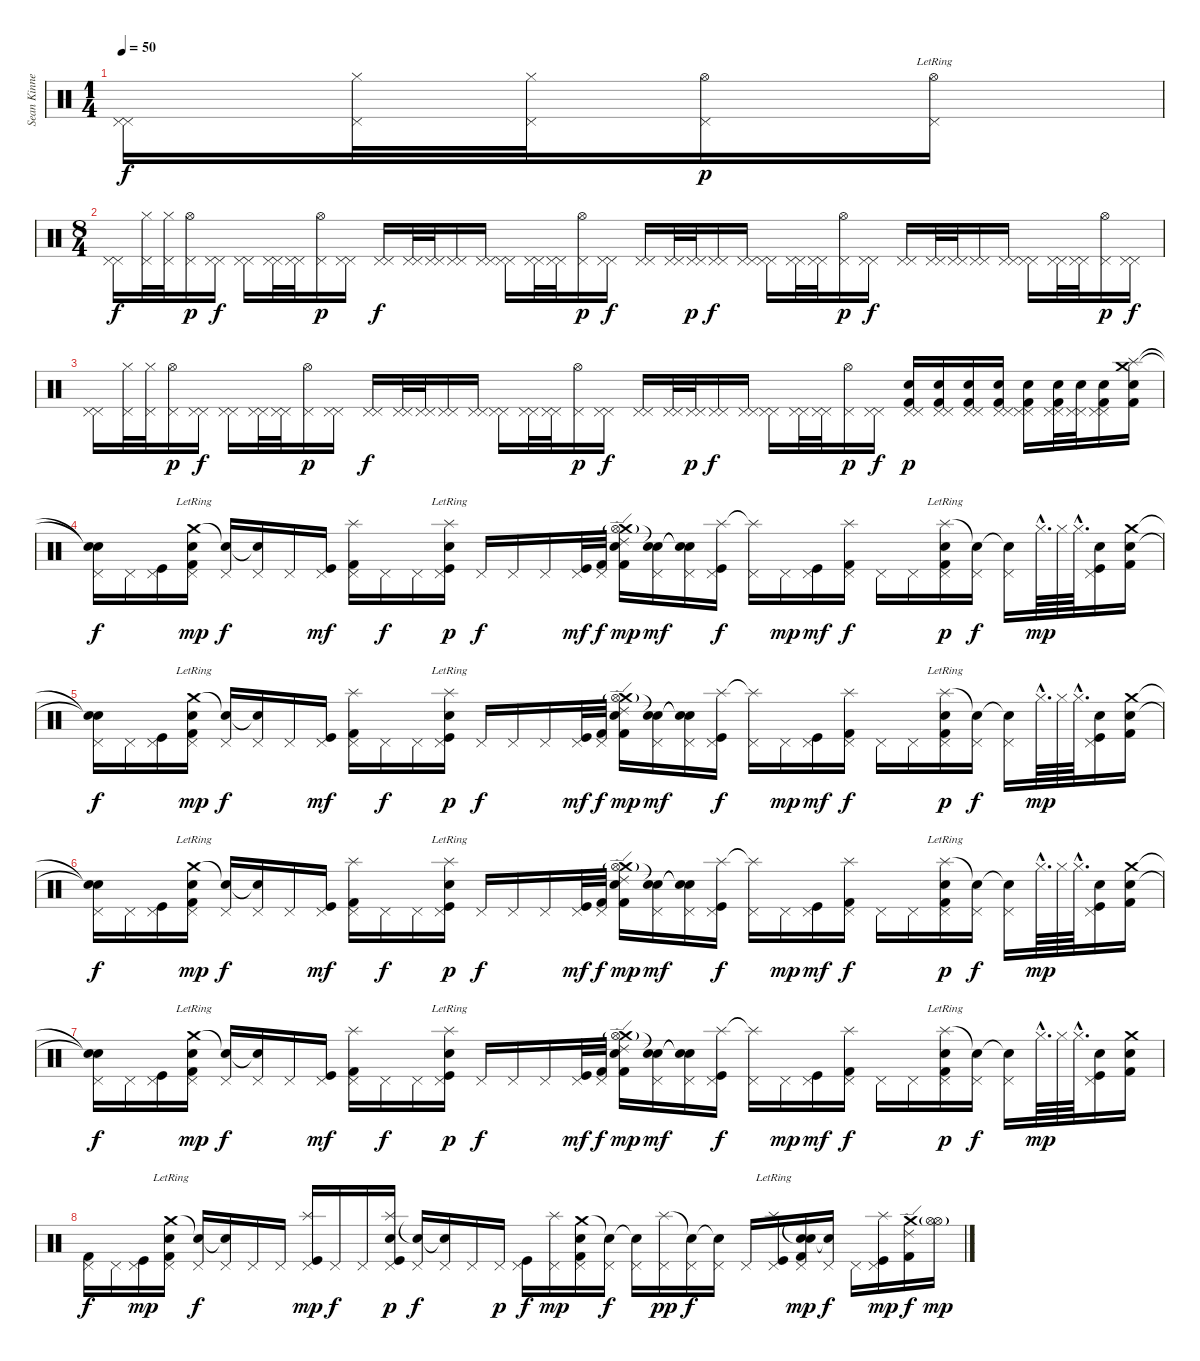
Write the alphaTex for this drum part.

\track ("Sean Kinney" "Sean Kinne") {instrument percussion}
\staff {score}
\articulation defaults
\ts (1 4)
\tempo 50
\clef neutral
\ks c
("Pedal Hi-Hat (hit)" "Pedal Hi-Hat (hit)").16{dy f} ("Hi-Hat (closed)" "Pedal Hi-Hat (hit)").32 ("Hi-Hat (closed)" "Pedal Hi-Hat (hit)").32 ("Pedal Hi-Hat (hit)" "Hi-Hat (open)").16{dy p} ("Pedal Hi-Hat (hit)" "Hi-Hat (open)"{lr}).16 |
\ts (8 4)
("Pedal Hi-Hat (hit)" "Pedal Hi-Hat (hit)").16{dy f} ("Hi-Hat (closed)" "Pedal Hi-Hat (hit)").32 ("Hi-Hat (closed)" "Pedal Hi-Hat (hit)").32 ("Pedal Hi-Hat (hit)" "Hi-Hat (open)").16{dy p} ("Pedal Hi-Hat (hit)" "Pedal Hi-Hat (hit)").16{dy f} ("Pedal Hi-Hat (hit)" "Pedal Hi-Hat (hit)").16 ("Pedal Hi-Hat (hit)" "Pedal Hi-Hat (hit)").32 ("Pedal Hi-Hat (hit)" "Pedal Hi-Hat (hit)").32 ("Pedal Hi-Hat (hit)" "Hi-Hat (open)").16{dy p} ("Pedal Hi-Hat (hit)" "Pedal Hi-Hat (hit)").16 ("Pedal Hi-Hat (hit)" "Pedal Hi-Hat (hit)").16{dy f} ("Pedal Hi-Hat (hit)" "Pedal Hi-Hat (hit)").32 ("Pedal Hi-Hat (hit)" "Pedal Hi-Hat (hit)").32 ("Pedal Hi-Hat (hit)" "Pedal Hi-Hat (hit)").16 ("Pedal Hi-Hat (hit)" "Pedal Hi-Hat (hit)").16 ("Pedal Hi-Hat (hit)" "Pedal Hi-Hat (hit)").16 ("Pedal Hi-Hat (hit)" "Pedal Hi-Hat (hit)").32 ("Pedal Hi-Hat (hit)" "Pedal Hi-Hat (hit)").32 ("Pedal Hi-Hat (hit)" "Hi-Hat (open)").16{dy p} ("Pedal Hi-Hat (hit)" "Pedal Hi-Hat (hit)").16{dy f} ("Pedal Hi-Hat (hit)" "Pedal Hi-Hat (hit)").16 ("Pedal Hi-Hat (hit)" "Pedal Hi-Hat (hit)").32 ("Pedal Hi-Hat (hit)" "Pedal Hi-Hat (hit)").32{dy p} ("Pedal Hi-Hat (hit)" "Pedal Hi-Hat (hit)").16{dy f} ("Pedal Hi-Hat (hit)" "Pedal Hi-Hat (hit)").16 ("Pedal Hi-Hat (hit)" "Pedal Hi-Hat (hit)").16 ("Pedal Hi-Hat (hit)" "Pedal Hi-Hat (hit)").32 ("Pedal Hi-Hat (hit)" "Pedal Hi-Hat (hit)").32 ("Pedal Hi-Hat (hit)" "Hi-Hat (open)").16{dy p} ("Pedal Hi-Hat (hit)" "Pedal Hi-Hat (hit)").16{dy f} ("Pedal Hi-Hat (hit)" "Pedal Hi-Hat (hit)").16 ("Pedal Hi-Hat (hit)" "Pedal Hi-Hat (hit)").32 ("Pedal Hi-Hat (hit)" "Pedal Hi-Hat (hit)").32 ("Pedal Hi-Hat (hit)" "Pedal Hi-Hat (hit)").16 ("Pedal Hi-Hat (hit)" "Pedal Hi-Hat (hit)").16 ("Pedal Hi-Hat (hit)" "Pedal Hi-Hat (hit)").16 ("Pedal Hi-Hat (hit)" "Pedal Hi-Hat (hit)").32 ("Pedal Hi-Hat (hit)" "Pedal Hi-Hat (hit)").32 ("Pedal Hi-Hat (hit)" "Hi-Hat (open)").16{dy p} ("Pedal Hi-Hat (hit)" "Pedal Hi-Hat (hit)").16{dy f} |
("Pedal Hi-Hat (hit)" "Pedal Hi-Hat (hit)").16 ("Hi-Hat (closed)" "Pedal Hi-Hat (hit)").32 ("Hi-Hat (closed)" "Pedal Hi-Hat (hit)").32 ("Pedal Hi-Hat (hit)" "Hi-Hat (open)").16{dy p} ("Pedal Hi-Hat (hit)" "Pedal Hi-Hat (hit)").16{dy f} ("Pedal Hi-Hat (hit)" "Pedal Hi-Hat (hit)").16 ("Pedal Hi-Hat (hit)" "Pedal Hi-Hat (hit)").32 ("Pedal Hi-Hat (hit)" "Pedal Hi-Hat (hit)").32 ("Pedal Hi-Hat (hit)" "Hi-Hat (open)").16{dy p} ("Pedal Hi-Hat (hit)" "Pedal Hi-Hat (hit)").16 ("Pedal Hi-Hat (hit)" "Pedal Hi-Hat (hit)").16{dy f} ("Pedal Hi-Hat (hit)" "Pedal Hi-Hat (hit)").32 ("Pedal Hi-Hat (hit)" "Pedal Hi-Hat (hit)").32 ("Pedal Hi-Hat (hit)" "Pedal Hi-Hat (hit)").16 ("Pedal Hi-Hat (hit)" "Pedal Hi-Hat (hit)").16 ("Pedal Hi-Hat (hit)" "Pedal Hi-Hat (hit)").16 ("Pedal Hi-Hat (hit)" "Pedal Hi-Hat (hit)").32 ("Pedal Hi-Hat (hit)" "Pedal Hi-Hat (hit)").32 ("Pedal Hi-Hat (hit)" "Hi-Hat (open)").16{dy p} ("Pedal Hi-Hat (hit)" "Pedal Hi-Hat (hit)").16{dy f} ("Pedal Hi-Hat (hit)" "Pedal Hi-Hat (hit)").16 ("Pedal Hi-Hat (hit)" "Pedal Hi-Hat (hit)").32 ("Pedal Hi-Hat (hit)" "Pedal Hi-Hat (hit)").32{dy p} ("Pedal Hi-Hat (hit)" "Pedal Hi-Hat (hit)").16{dy f} ("Pedal Hi-Hat (hit)" "Pedal Hi-Hat (hit)").16 ("Pedal Hi-Hat (hit)" "Pedal Hi-Hat (hit)").16 ("Pedal Hi-Hat (hit)" "Pedal Hi-Hat (hit)").32 ("Pedal Hi-Hat (hit)" "Pedal Hi-Hat (hit)").32 ("Pedal Hi-Hat (hit)" "Hi-Hat (open)").16{dy p} ("Pedal Hi-Hat (hit)" "Pedal Hi-Hat (hit)").16{dy f} ("Pedal Hi-Hat (hit)" "Pedal Hi-Hat (hit)" "Snare (hit) 2" "Kick (hit) 2").16{dy p} ("Pedal Hi-Hat (hit)" "Pedal Hi-Hat (hit)" "Snare (hit) 2" "Kick (hit) 2").16 ("Pedal Hi-Hat (hit)" "Pedal Hi-Hat (hit)" "Snare (hit) 2" "Kick (hit) 2").16 ("Pedal Hi-Hat (hit)" "Pedal Hi-Hat (hit)" "Snare (hit) 2" "Kick (hit) 2").16 ("Pedal Hi-Hat (hit)" "Pedal Hi-Hat (hit)" "Snare (hit) 2" "Kick (hit) 2").16 ("Pedal Hi-Hat (hit)" "Pedal Hi-Hat (hit)" "Snare (hit) 2" "Kick (hit) 2").32 ("Pedal Hi-Hat (hit)" "Pedal Hi-Hat (hit)" "Snare (hit) 2").32 ("Pedal Hi-Hat (hit)" "Pedal Hi-Hat (hit)" "Snare (hit) 2" "Kick (hit) 2").16 ("Splash (hit)" "Crash medium (hit)" "Snare (hit) 2" "Kick (hit) 2").16 |
("Snare (hit)"{t} "Snare (hit)"{t} "Pedal Hi-Hat (hit)").16{dy f} "Pedal Hi-Hat (hit)".16 ("Pedal Hi-Hat (hit)" "Kick (hit)").16 ("Crash medium (hit)"{lr} "Snare (hit) 2" "Pedal Hi-Hat (hit)" "Kick (hit) 2").16{dy mp} ("Snare (hit)"{t} "Pedal Hi-Hat (hit)").16{dy f} ("Snare (hit)"{t} "Pedal Hi-Hat (hit)").16 "Pedal Hi-Hat (hit)".16 ("Pedal Hi-Hat (hit)" "Kick (hit)").16{dy mf} ("Splash (hit)" "Pedal Hi-Hat (hit)" "Kick (hit) 2").16 "Pedal Hi-Hat (hit)".16{dy f} "Pedal Hi-Hat (hit)".16 ("Splash (hit)"{lr} "Snare (hit) 2" "Pedal Hi-Hat (hit)" "Kick (hit)").16{dy p} "Pedal Hi-Hat (hit)".16{dy f} "Pedal Hi-Hat (hit)".16 "Pedal Hi-Hat (hit)".16 ("Pedal Hi-Hat (hit)" "Kick (hit)").32{dy mf} ("Pedal Hi-Hat (hit)" "Kick (hit) 2").32{dy f} ("Crash medium (hit)" "Ride (edge) 2" "Snare (hit) 2" "Hi-Hat (open)"{g} "Kick (hit) 2").16{dy mp} ("Snare (hit)"{t} "Snare (hit)"{t} "Pedal Hi-Hat (hit)").16{dy mf} ("Snare (hit)"{t} "Snare (hit)"{t} "Pedal Hi-Hat (hit)").16 ("Splash (hit)" "Pedal Hi-Hat (hit)" "Kick (hit)").16{dy f} ("Splash (hit)"{t} "Pedal Hi-Hat (hit)").16 "Pedal Hi-Hat (hit)".16{dy mp} ("Pedal Hi-Hat (hit)" "Kick (hit)").16{dy mf} ("Splash (hit)" "Pedal Hi-Hat (hit)" "Kick (hit) 2").16{dy f} "Pedal Hi-Hat (hit)".16 "Pedal Hi-Hat (hit)".16 ("Splash (hit)"{lr} "Snare (hit) 2" "Pedal Hi-Hat (hit)" "Kick (hit) 2").16{dy p} ("Snare (hit)"{t} "Pedal Hi-Hat (hit)").16{dy f} ("Snare (hit)"{t} "Pedal Hi-Hat (hit)").16 "Hi-Hat (closed)"{hac}.64{d dy mp} "Hi-Hat (closed)".64 "Hi-Hat (closed)"{hac}.64{d} ("Snare (hit) 2" "Pedal Hi-Hat (hit)" "Kick (hit)").16 ("Crash medium (hit)" "Snare (hit) 2" "Kick (hit) 2").16 |
("Snare (hit)"{t} "Snare (hit)"{t} "Pedal Hi-Hat (hit)").16{dy f} "Pedal Hi-Hat (hit)".16 ("Pedal Hi-Hat (hit)" "Kick (hit)").16 ("Crash medium (hit)"{lr} "Snare (hit) 2" "Pedal Hi-Hat (hit)" "Kick (hit) 2").16{dy mp} ("Snare (hit)"{t} "Pedal Hi-Hat (hit)").16{dy f} ("Snare (hit)"{t} "Pedal Hi-Hat (hit)").16 "Pedal Hi-Hat (hit)".16 ("Pedal Hi-Hat (hit)" "Kick (hit)").16{dy mf} ("Splash (hit)" "Pedal Hi-Hat (hit)" "Kick (hit) 2").16 "Pedal Hi-Hat (hit)".16{dy f} "Pedal Hi-Hat (hit)".16 ("Splash (hit)"{lr} "Snare (hit) 2" "Pedal Hi-Hat (hit)" "Kick (hit)").16{dy p} "Pedal Hi-Hat (hit)".16{dy f} "Pedal Hi-Hat (hit)".16 "Pedal Hi-Hat (hit)".16 ("Pedal Hi-Hat (hit)" "Kick (hit)").32{dy mf} ("Pedal Hi-Hat (hit)" "Kick (hit) 2").32{dy f} ("Crash medium (hit)" "Ride (edge) 2" "Snare (hit) 2" "Hi-Hat (open)"{g} "Kick (hit) 2").16{dy mp} ("Snare (hit)"{t} "Snare (hit)"{t} "Pedal Hi-Hat (hit)").16{dy mf} ("Snare (hit)"{t} "Snare (hit)"{t} "Pedal Hi-Hat (hit)").16 ("Splash (hit)" "Pedal Hi-Hat (hit)" "Kick (hit)").16{dy f} ("Splash (hit)"{t} "Pedal Hi-Hat (hit)").16 "Pedal Hi-Hat (hit)".16{dy mp} ("Pedal Hi-Hat (hit)" "Kick (hit)").16{dy mf} ("Splash (hit)" "Pedal Hi-Hat (hit)" "Kick (hit) 2").16{dy f} "Pedal Hi-Hat (hit)".16 "Pedal Hi-Hat (hit)".16 ("Splash (hit)"{lr} "Snare (hit) 2" "Pedal Hi-Hat (hit)" "Kick (hit) 2").16{dy p} ("Snare (hit)"{t} "Pedal Hi-Hat (hit)").16{dy f} ("Snare (hit)"{t} "Pedal Hi-Hat (hit)").16 "Hi-Hat (closed)"{hac}.64{d dy mp} "Hi-Hat (closed)".64 "Hi-Hat (closed)"{hac}.64{d} ("Snare (hit) 2" "Pedal Hi-Hat (hit)" "Kick (hit)").16 ("Crash medium (hit)" "Snare (hit) 2" "Kick (hit) 2").16 |
("Snare (hit)"{t} "Snare (hit)"{t} "Pedal Hi-Hat (hit)").16{dy f} "Pedal Hi-Hat (hit)".16 ("Pedal Hi-Hat (hit)" "Kick (hit)").16 ("Crash medium (hit)"{lr} "Snare (hit) 2" "Pedal Hi-Hat (hit)" "Kick (hit) 2").16{dy mp} ("Snare (hit)"{t} "Pedal Hi-Hat (hit)").16{dy f} ("Snare (hit)"{t} "Pedal Hi-Hat (hit)").16 "Pedal Hi-Hat (hit)".16 ("Pedal Hi-Hat (hit)" "Kick (hit)").16{dy mf} ("Splash (hit)" "Pedal Hi-Hat (hit)" "Kick (hit) 2").16 "Pedal Hi-Hat (hit)".16{dy f} "Pedal Hi-Hat (hit)".16 ("Splash (hit)"{lr} "Snare (hit) 2" "Pedal Hi-Hat (hit)" "Kick (hit)").16{dy p} "Pedal Hi-Hat (hit)".16{dy f} "Pedal Hi-Hat (hit)".16 "Pedal Hi-Hat (hit)".16 ("Pedal Hi-Hat (hit)" "Kick (hit)").32{dy mf} ("Pedal Hi-Hat (hit)" "Kick (hit) 2").32{dy f} ("Crash medium (hit)" "Ride (edge) 2" "Snare (hit) 2" "Hi-Hat (open)"{g} "Kick (hit) 2").16{dy mp} ("Snare (hit)"{t} "Snare (hit)"{t} "Pedal Hi-Hat (hit)").16{dy mf} ("Snare (hit)"{t} "Snare (hit)"{t} "Pedal Hi-Hat (hit)").16 ("Splash (hit)" "Pedal Hi-Hat (hit)" "Kick (hit)").16{dy f} ("Splash (hit)"{t} "Pedal Hi-Hat (hit)").16 "Pedal Hi-Hat (hit)".16{dy mp} ("Pedal Hi-Hat (hit)" "Kick (hit)").16{dy mf} ("Splash (hit)" "Pedal Hi-Hat (hit)" "Kick (hit) 2").16{dy f} "Pedal Hi-Hat (hit)".16 "Pedal Hi-Hat (hit)".16 ("Splash (hit)"{lr} "Snare (hit) 2" "Pedal Hi-Hat (hit)" "Kick (hit) 2").16{dy p} ("Snare (hit)"{t} "Pedal Hi-Hat (hit)").16{dy f} ("Snare (hit)"{t} "Pedal Hi-Hat (hit)").16 "Hi-Hat (closed)"{hac}.64{d dy mp} "Hi-Hat (closed)".64 "Hi-Hat (closed)"{hac}.64{d} ("Snare (hit) 2" "Pedal Hi-Hat (hit)" "Kick (hit)").16 ("Crash medium (hit)" "Snare (hit) 2" "Kick (hit) 2").16 |
("Snare (hit)"{t} "Snare (hit)"{t} "Pedal Hi-Hat (hit)").16{dy f} "Pedal Hi-Hat (hit)".16 ("Pedal Hi-Hat (hit)" "Kick (hit)").16 ("Crash medium (hit)"{lr} "Snare (hit) 2" "Pedal Hi-Hat (hit)" "Kick (hit) 2").16{dy mp} ("Snare (hit)"{t} "Pedal Hi-Hat (hit)").16{dy f} ("Snare (hit)"{t} "Pedal Hi-Hat (hit)").16 "Pedal Hi-Hat (hit)".16 ("Pedal Hi-Hat (hit)" "Kick (hit)").16{dy mf} ("Splash (hit)" "Pedal Hi-Hat (hit)" "Kick (hit) 2").16 "Pedal Hi-Hat (hit)".16{dy f} "Pedal Hi-Hat (hit)".16 ("Splash (hit)"{lr} "Snare (hit) 2" "Pedal Hi-Hat (hit)" "Kick (hit)").16{dy p} "Pedal Hi-Hat (hit)".16{dy f} "Pedal Hi-Hat (hit)".16 "Pedal Hi-Hat (hit)".16 ("Pedal Hi-Hat (hit)" "Kick (hit)").32{dy mf} ("Pedal Hi-Hat (hit)" "Kick (hit) 2").32{dy f} ("Crash medium (hit)" "Ride (edge) 2" "Snare (hit) 2" "Hi-Hat (open)"{g} "Kick (hit) 2").16{dy mp} ("Snare (hit)"{t} "Snare (hit)"{t} "Pedal Hi-Hat (hit)").16{dy mf} ("Snare (hit)"{t} "Snare (hit)"{t} "Pedal Hi-Hat (hit)").16 ("Splash (hit)" "Pedal Hi-Hat (hit)" "Kick (hit)").16{dy f} ("Splash (hit)"{t} "Pedal Hi-Hat (hit)").16 "Pedal Hi-Hat (hit)".16{dy mp} ("Pedal Hi-Hat (hit)" "Kick (hit)").16{dy mf} ("Splash (hit)" "Pedal Hi-Hat (hit)" "Kick (hit) 2").16{dy f} "Pedal Hi-Hat (hit)".16 "Pedal Hi-Hat (hit)".16 ("Splash (hit)"{lr} "Snare (hit) 2" "Pedal Hi-Hat (hit)" "Kick (hit) 2").16{dy p} ("Snare (hit)"{t} "Pedal Hi-Hat (hit)").16{dy f} ("Snare (hit)"{t} "Pedal Hi-Hat (hit)").16 "Hi-Hat (closed)"{hac}.64{d dy mp} "Hi-Hat (closed)".64 "Hi-Hat (closed)"{hac}.64{d} ("Snare (hit) 2" "Pedal Hi-Hat (hit)" "Kick (hit)").16 ("Crash medium (hit)" "Snare (hit) 2" "Kick (hit) 2").16 |
("Pedal Hi-Hat (hit)" "Kick (hit) 2").16{dy f} "Pedal Hi-Hat (hit)".16 ("Pedal Hi-Hat (hit)" "Kick (hit)").16{dy mp} ("Crash medium (hit)"{lr} "Snare (hit) 2" "Pedal Hi-Hat (hit)" "Kick (hit) 2").16 ("Snare (hit)"{t} "Pedal Hi-Hat (hit)").16{dy f} ("Snare (hit)"{t} "Pedal Hi-Hat (hit)").16 "Pedal Hi-Hat (hit)".16 "Pedal Hi-Hat (hit)".16 ("Splash (hit)" "Pedal Hi-Hat (hit)" "Kick (hit)").16{dy mp} "Pedal Hi-Hat (hit)".16{dy f} "Pedal Hi-Hat (hit)".16 ("Splash (hit)" "Snare (hit) 2" "Pedal Hi-Hat (hit)" "Kick (hit)").16{dy p} ("Snare (hit)"{t} "Pedal Hi-Hat (hit)").16{dy f} ("Snare (hit)"{t} "Pedal Hi-Hat (hit)").16 "Pedal Hi-Hat (hit)".16 "Pedal Hi-Hat (hit)".16{dy p} ("Pedal Hi-Hat (hit)" "Kick (hit)").16{dy f} ("Splash (hit)" "Pedal Hi-Hat (hit)").16{dy mp} ("Crash medium (hit)" "Snare (hit) 2" "Pedal Hi-Hat (hit)" "Kick (hit) 2").16 ("Snare (hit)"{t} "Pedal Hi-Hat (hit)").16{dy f} ("Snare (hit)"{t} "Pedal Hi-Hat (hit)").16 ("Splash (hit)" "Pedal Hi-Hat (hit)").16{dy pp} ("Snare (hit)"{t} "Pedal Hi-Hat (hit)").16{dy f} ("Snare (hit)"{t} "Pedal Hi-Hat (hit)").16 "Pedal Hi-Hat (hit)".16 ("Splash (hit)"{lr} "Pedal Hi-Hat (hit)" "Kick (hit)").16 ("Snare (hit)"{t} "Snare (hit) 2" "Pedal Hi-Hat (hit)" "Kick (hit) 2").16{dy mp} ("Snare (hit)"{t} "Pedal Hi-Hat (hit)").16{dy f} "Pedal Hi-Hat (hit)".16 ("Splash (hit)" "Pedal Hi-Hat (hit)" "Kick (hit)").16{dy mp} ("Crash medium (hit)" "Ride (edge) 2" "Kick (hit) 2").16{dy f} ("Hi-Hat (open)"{g} "Hi-Hat (open)").16{dy mp}
